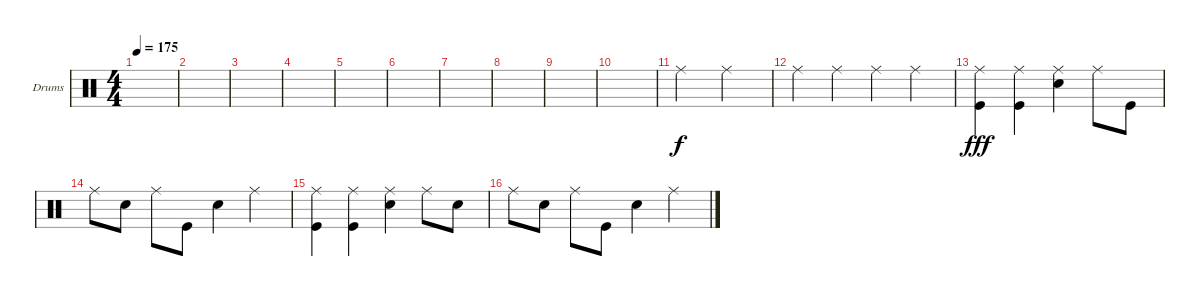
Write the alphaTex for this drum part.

\defaultSystemsLayout 4
\bracketExtendMode groupsimilarinstruments
\firstSystemTrackNameOrientation horizontal
\otherSystemsTrackNameOrientation horizontal
\track ("Drumkit" "Drums") {instrument percussion}
\staff {score}
\articulation defaults
\ts (4 4)
\tempo 175
\clef neutral
\scale
0.333333
\ks c
|
\scale
0.333333 |
\scale
0.333333 |
\scale
0.333333 |
\scale
0.333333 |
\scale
0.333333 |
\scale
0.333333 |
\scale
0.333333 |
|
|
"Ride (middle)".2 "Ride (middle)".2 |
"Ride (middle)".4 "Ride (middle)".4 "Ride (middle)".4 "Ride (middle)".4 |
("Kick (hit)" "Ride (middle)").4{dy fff} ("Kick (hit)" "Ride (middle)").4 ("Snare (hit) 2" "Ride (middle)").4 "Ride (middle)".8 "Kick (hit)".8 |
"Ride (middle)".8 "Snare (hit) 2".8 "Ride (middle)".8 "Kick (hit)".8 "Snare (hit) 2".4 "Ride (middle)".4 |
("Kick (hit)" "Ride (middle)").4 ("Kick (hit)" "Ride (middle)").4 ("Snare (hit) 2" "Ride (middle)").4 "Ride (middle)".8 "Snare (hit) 2".8 |
"Ride (middle)".8 "Snare (hit) 2".8 "Ride (middle)".8 "Kick (hit)".8 "Snare (hit) 2".4 "Ride (middle)".4
